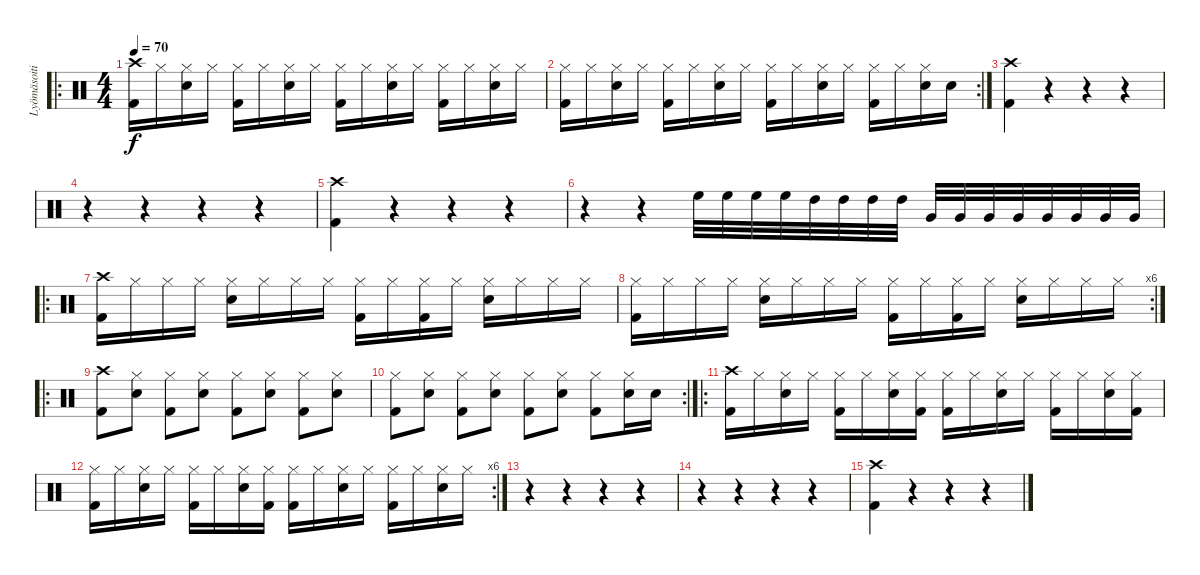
\track ("Lyömäsoitin" "Lyömäsoiti") {instrument percussion}
\staff {score}
\articulation defaults
\ro
\ts (4 4)
\tempo 70
\clef neutral
\ks c
("Crash high (hit)" "Kick (hit) 2").16{dy f} "Hi-Hat (closed)".16 ("Hi-Hat (closed)" "Snare (hit) 2").16 "Hi-Hat (closed)".16 ("Hi-Hat (closed)" "Kick (hit) 2").16 "Hi-Hat (closed)".16 ("Hi-Hat (closed)" "Snare (hit) 2").16 "Hi-Hat (closed)".16 ("Hi-Hat (closed)" "Kick (hit) 2").16 "Hi-Hat (closed)".16 ("Hi-Hat (closed)" "Snare (hit) 2").16 "Hi-Hat (closed)".16 ("Hi-Hat (closed)" "Kick (hit) 2").16 "Hi-Hat (closed)".16 ("Hi-Hat (closed)" "Snare (hit) 2").16 "Hi-Hat (closed)".16 |
\rc 2
("Hi-Hat (closed)" "Kick (hit) 2").16 "Hi-Hat (closed)".16 ("Hi-Hat (closed)" "Snare (hit) 2").16 "Hi-Hat (closed)".16 ("Hi-Hat (closed)" "Kick (hit) 2").16 "Hi-Hat (closed)".16 ("Hi-Hat (closed)" "Snare (hit) 2").16 "Hi-Hat (closed)".16 ("Hi-Hat (closed)" "Kick (hit) 2").16 "Hi-Hat (closed)".16 ("Hi-Hat (closed)" "Snare (hit) 2").16 "Hi-Hat (closed)".16 ("Hi-Hat (closed)" "Kick (hit) 2").16 "Hi-Hat (closed)".16 ("Hi-Hat (closed)" "Snare (hit) 2").16 "Snare (hit) 2".16 |
("Crash high (hit)" "Kick (hit) 2").4 r.4 r.4 r.4 |
r.4 r.4 r.4 r.4 |
("Crash high (hit)" "Kick (hit) 2").4 r.4 r.4 r.4 |
r.4 r.4 "High Floor Tom (hit)".32 "High Floor Tom (hit)".32 "High Floor Tom (hit)".32 "High Floor Tom (hit)".32 "High Tom (hit)".32 "High Tom (hit)".32 "High Tom (hit)".32 "High Tom (hit)".32 "Very Low Tom (hit)".32 "Very Low Tom (hit)".32 "Very Low Tom (hit)".32 "Very Low Tom (hit)".32 "Very Low Tom (hit)".32 "Very Low Tom (hit)".32 "Very Low Tom (hit)".32 "Very Low Tom (hit)".32 |
\ro
("Crash high (hit)" "Kick (hit) 2").16 "Hi-Hat (closed)".16 "Hi-Hat (closed)".16 "Hi-Hat (closed)".16 ("Hi-Hat (closed)" "Snare (hit) 2").16 "Hi-Hat (closed)".16 "Hi-Hat (closed)".16 "Hi-Hat (closed)".16 ("Hi-Hat (closed)" "Kick (hit) 2").16 "Hi-Hat (closed)".16 ("Hi-Hat (closed)" "Kick (hit) 2").16 "Hi-Hat (closed)".16 ("Hi-Hat (closed)" "Snare (hit) 2").16 "Hi-Hat (closed)".16 "Hi-Hat (closed)".16 "Hi-Hat (closed)".16 |
\rc 6
("Hi-Hat (closed)" "Kick (hit) 2").16 "Hi-Hat (closed)".16 "Hi-Hat (closed)".16 "Hi-Hat (closed)".16 ("Hi-Hat (closed)" "Snare (hit) 2").16 "Hi-Hat (closed)".16 "Hi-Hat (closed)".16 "Hi-Hat (closed)".16 ("Hi-Hat (closed)" "Kick (hit) 2").16 "Hi-Hat (closed)".16 ("Hi-Hat (closed)" "Kick (hit) 2").16 "Hi-Hat (closed)".16 ("Hi-Hat (closed)" "Snare (hit) 2").16 "Hi-Hat (closed)".16 "Hi-Hat (closed)".16 "Hi-Hat (closed)".16 |
\ro
("Crash high (hit)" "Kick (hit) 2").8 ("Hi-Hat (closed)" "Snare (hit) 2").8 ("Hi-Hat (closed)" "Kick (hit) 2").8 ("Hi-Hat (closed)" "Snare (hit) 2").8 ("Hi-Hat (closed)" "Kick (hit) 2").8 ("Hi-Hat (closed)" "Snare (hit) 2").8 ("Hi-Hat (closed)" "Kick (hit) 2").8 ("Hi-Hat (closed)" "Snare (hit) 2").8 |
\rc 2
("Hi-Hat (closed)" "Kick (hit) 2").8 ("Hi-Hat (closed)" "Snare (hit) 2").8 ("Hi-Hat (closed)" "Kick (hit) 2").8 ("Hi-Hat (closed)" "Snare (hit) 2").8 ("Hi-Hat (closed)" "Kick (hit) 2").8 ("Hi-Hat (closed)" "Snare (hit) 2").8 ("Hi-Hat (closed)" "Kick (hit) 2").8 ("Hi-Hat (closed)" "Snare (hit) 2").16 "Snare (hit) 2".16 |
\ro
("Crash high (hit)" "Kick (hit) 2").16 "Hi-Hat (closed)".16 ("Hi-Hat (closed)" "Snare (hit) 2").16 "Hi-Hat (closed)".16 ("Hi-Hat (closed)" "Kick (hit) 2").16 "Hi-Hat (closed)".16 ("Hi-Hat (closed)" "Snare (hit) 2").16 ("Hi-Hat (closed)" "Kick (hit) 2").16 ("Hi-Hat (closed)" "Kick (hit) 2").16 "Hi-Hat (closed)".16 ("Hi-Hat (closed)" "Snare (hit) 2").16 "Hi-Hat (closed)".16 ("Hi-Hat (closed)" "Kick (hit) 2").16 "Hi-Hat (closed)".16 ("Hi-Hat (closed)" "Snare (hit) 2").16 ("Hi-Hat (closed)" "Kick (hit) 2").16 |
\rc 6
("Hi-Hat (closed)" "Kick (hit) 2").16 "Hi-Hat (closed)".16 ("Hi-Hat (closed)" "Snare (hit) 2").16 "Hi-Hat (closed)".16 ("Hi-Hat (closed)" "Kick (hit) 2").16 "Hi-Hat (closed)".16 ("Hi-Hat (closed)" "Snare (hit) 2").16 ("Hi-Hat (closed)" "Kick (hit) 2").16 ("Hi-Hat (closed)" "Kick (hit) 2").16 "Hi-Hat (closed)".16 ("Hi-Hat (closed)" "Snare (hit) 2").16 "Hi-Hat (closed)".16 ("Hi-Hat (closed)" "Kick (hit) 2").16 "Hi-Hat (closed)".16 ("Hi-Hat (closed)" "Snare (hit) 2").16 "Hi-Hat (closed)".16 |
r.4 r.4 r.4 r.4 |
r.4 r.4 r.4 r.4 |
("Crash high (hit)" "Kick (hit) 2").4 r.4 r.4 r.4
